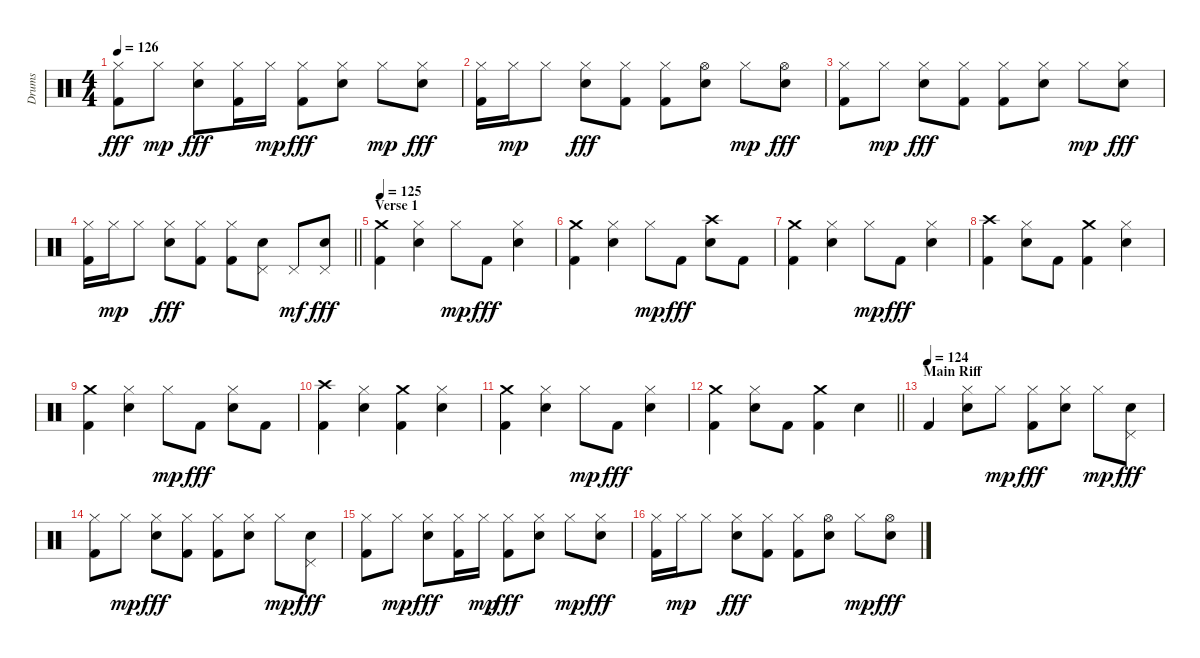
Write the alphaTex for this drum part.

\track ("Drums" "Drums") {instrument percussion}
\staff {score}
\articulation defaults
\ts (4 4)
\tempo 126
\clef neutral
\ks c
("Hi-Hat (closed)" "Kick (hit) 2").8{dy fff} "Hi-Hat (closed)".8{dy mp} ("Hi-Hat (closed)" "Electric Snare (hit)").8{dy fff} ("Hi-Hat (closed)" "Kick (hit) 2").16 "Hi-Hat (closed)".16{dy mp} ("Hi-Hat (closed)" "Kick (hit) 2").8{dy fff} ("Hi-Hat (closed)" "Electric Snare (hit)").8 "Hi-Hat (closed)".8{dy mp} ("Hi-Hat (closed)" "Electric Snare (hit)").8{dy fff} |
("Hi-Hat (closed)" "Kick (hit) 2").16 "Hi-Hat (closed)".16{dy mp} "Hi-Hat (closed)".8 ("Hi-Hat (closed)" "Electric Snare (hit)").8{dy fff} ("Hi-Hat (closed)" "Kick (hit) 2").8 ("Hi-Hat (closed)" "Kick (hit) 2").8 ("Hi-Hat (open)" "Electric Snare (hit)").8 "Hi-Hat (closed)".8{dy mp} ("Hi-Hat (open)" "Electric Snare (hit)").8{dy fff} |
("Hi-Hat (closed)" "Kick (hit) 2").8 "Hi-Hat (closed)".8{dy mp} ("Hi-Hat (closed)" "Electric Snare (hit)").8{dy fff} ("Hi-Hat (closed)" "Kick (hit) 2").8 ("Hi-Hat (closed)" "Kick (hit) 2").8 ("Hi-Hat (closed)" "Electric Snare (hit)").8 "Hi-Hat (closed)".8{dy mp} ("Hi-Hat (closed)" "Electric Snare (hit)").8{dy fff} |
\barLineRight lightlight
("Hi-Hat (closed)" "Kick (hit) 2").16 "Hi-Hat (closed)".16{dy mp} "Hi-Hat (closed)".8 ("Hi-Hat (closed)" "Electric Snare (hit)").8{dy fff} ("Hi-Hat (closed)" "Kick (hit) 2").8 ("Hi-Hat (closed)" "Kick (hit) 2").8 ("Pedal Hi-Hat (hit)" "Electric Snare (hit)").8 "Pedal Hi-Hat (hit)".8{dy mf} ("Pedal Hi-Hat (hit)" "Electric Snare (hit)").8{dy fff} |
\section ("" "Verse 1")
\tempo 125
("Crash medium (hit)" "Kick (hit) 2").4 ("Hi-Hat (closed)" "Electric Snare (hit)").4 "Hi-Hat (closed)".8{dy mp} "Kick (hit) 2".8{dy fff} ("Hi-Hat (closed)" "Electric Snare (hit)").4 |
("Crash medium (hit)" "Kick (hit) 2").4 ("Hi-Hat (closed)" "Electric Snare (hit)").4 "Hi-Hat (closed)".8{dy mp} "Kick (hit) 2".8{dy fff} ("Crash high (hit)" "Electric Snare (hit)").8 "Kick (hit) 2".8 |
("Crash medium (hit)" "Kick (hit) 2").4 ("Hi-Hat (closed)" "Electric Snare (hit)").4 "Hi-Hat (closed)".8{dy mp} "Kick (hit) 2".8{dy fff} ("Hi-Hat (closed)" "Electric Snare (hit)").4 |
("Crash high (hit)" "Kick (hit) 2").4 ("Hi-Hat (closed)" "Electric Snare (hit)").8 "Kick (hit) 2".8 ("Crash medium (hit)" "Kick (hit) 2").4 ("Hi-Hat (closed)" "Electric Snare (hit)").4 |
("Crash medium (hit)" "Kick (hit) 2").4 ("Hi-Hat (closed)" "Electric Snare (hit)").4 "Hi-Hat (closed)".8{dy mp} "Kick (hit) 2".8{dy fff} ("Hi-Hat (closed)" "Electric Snare (hit)").8 "Kick (hit) 2".8 |
("Crash high (hit)" "Kick (hit) 2").4 ("Hi-Hat (closed)" "Electric Snare (hit)").4 ("Crash medium (hit)" "Kick (hit) 2").4 ("Hi-Hat (closed)" "Electric Snare (hit)").4 |
("Crash medium (hit)" "Kick (hit) 2").4 ("Hi-Hat (closed)" "Electric Snare (hit)").4 "Hi-Hat (closed)".8{dy mp} "Kick (hit) 2".8{dy fff} ("Hi-Hat (closed)" "Electric Snare (hit)").4 |
\barLineRight lightlight
("Crash medium (hit)" "Kick (hit) 2").4 ("Hi-Hat (closed)" "Electric Snare (hit)").8 "Kick (hit) 2".8 ("Crash medium (hit)" "Kick (hit) 2").4 "Electric Snare (hit)".4 |
\section ("" "Main Riff")
\tempo (124)
"Kick (hit) 2".4 ("Hi-Hat (closed)" "Electric Snare (hit)").8 "Hi-Hat (closed)".8{dy mp} ("Hi-Hat (closed)" "Kick (hit) 2").8{dy fff} ("Hi-Hat (closed)" "Electric Snare (hit)").8 "Hi-Hat (closed)".8{dy mp} ("Pedal Hi-Hat (hit)" "Electric Snare (hit)").8{dy fff} |
("Hi-Hat (closed)" "Kick (hit) 2").8 "Hi-Hat (closed)".8{dy mp} ("Hi-Hat (closed)" "Electric Snare (hit)").8{dy fff} ("Hi-Hat (closed)" "Kick (hit) 2").8 ("Hi-Hat (closed)" "Kick (hit) 2").8 ("Hi-Hat (closed)" "Electric Snare (hit)").8 "Hi-Hat (closed)".8{dy mp} ("Pedal Hi-Hat (hit)" "Electric Snare (hit)").8{dy fff} |
("Hi-Hat (closed)" "Kick (hit) 2").8 "Hi-Hat (closed)".8{dy mp} ("Hi-Hat (closed)" "Electric Snare (hit)").8{dy fff} ("Hi-Hat (closed)" "Kick (hit) 2").16 "Hi-Hat (closed)".16{dy mp} ("Hi-Hat (closed)" "Kick (hit) 2").8{dy fff} ("Hi-Hat (closed)" "Electric Snare (hit)").8 "Hi-Hat (closed)".8{dy mp} ("Hi-Hat (closed)" "Electric Snare (hit)").8{dy fff} |
("Hi-Hat (closed)" "Kick (hit) 2").16 "Hi-Hat (closed)".16{dy mp} "Hi-Hat (closed)".8 ("Hi-Hat (closed)" "Electric Snare (hit)").8{dy fff} ("Hi-Hat (closed)" "Kick (hit) 2").8 ("Hi-Hat (closed)" "Kick (hit) 2").8 ("Hi-Hat (open)" "Electric Snare (hit)").8 "Hi-Hat (closed)".8{dy mp} ("Hi-Hat (open)" "Electric Snare (hit)").8{dy fff}
